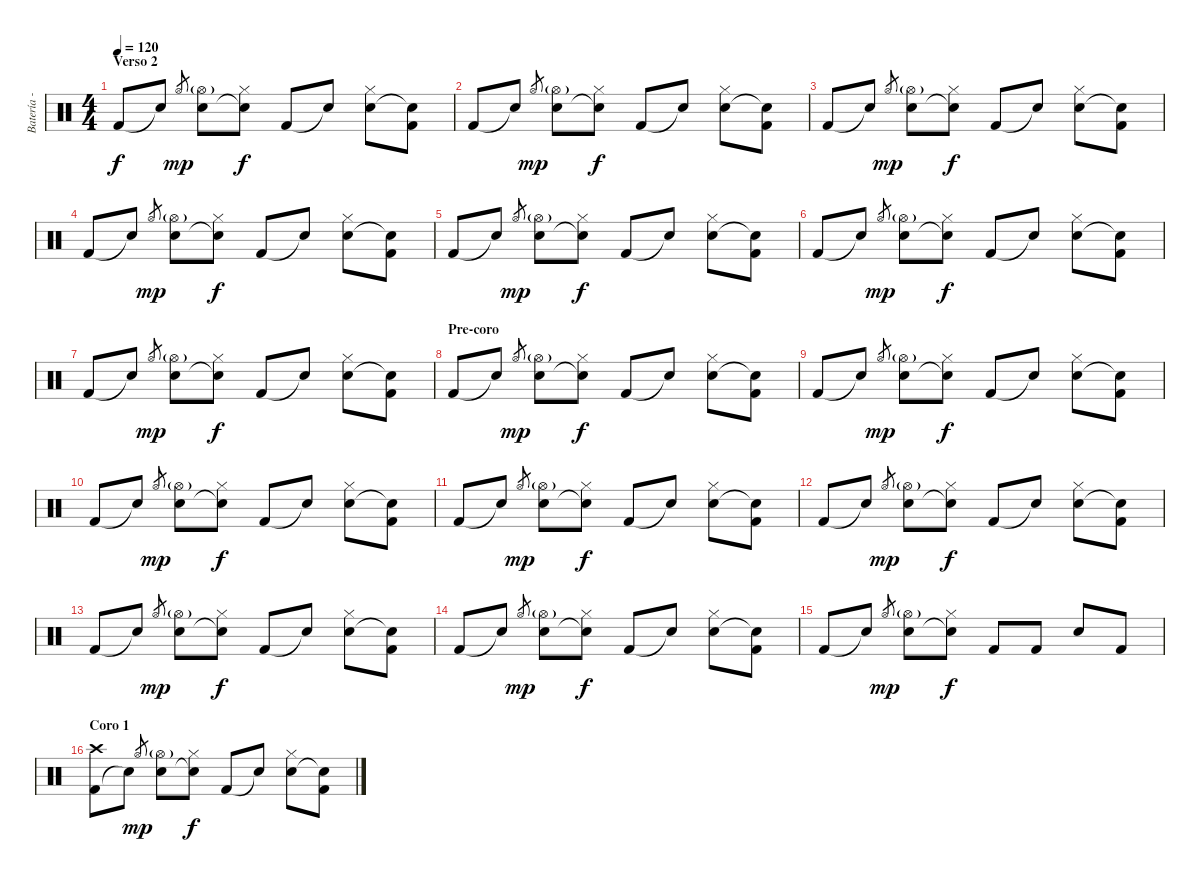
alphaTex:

\track ("Batería - Txus" "Batería - ") {instrument percussion}
\staff {score}
\articulation defaults
\ts (4 4)
\section ("" "Verso 2")
\tempo 120
\clef neutral
\ks c "Kick (hit) 2".8{dy f} "Snare (hit)"{t}.8 "Hi-Hat (open)".8{gr dy mp}
("Snare (hit) 2" "Hi-Hat (open)"{g}).8 ("Snare (hit)"{t} "Hi-Hat (closed)").8{dy f} "Kick (hit) 2".8 "Snare (hit)"{t}.8 ("Snare (hit) 2" "Hi-Hat (closed)").8 ("Snare (hit)"{t} "Kick (hit) 2").8 |
"Kick (hit) 2".8 "Snare (hit)"{t}.8 "Hi-Hat (open)".8{gr dy mp} ("Snare (hit) 2" "Hi-Hat (open)"{g}).8 ("Snare (hit)"{t} "Hi-Hat (closed)").8{dy f} "Kick (hit) 2".8 "Snare (hit)"{t}.8 ("Snare (hit) 2" "Hi-Hat (closed)").8 ("Snare (hit)"{t} "Kick (hit) 2").8 |
"Kick (hit) 2".8 "Snare (hit)"{t}.8 "Hi-Hat (open)".8{gr dy mp} ("Snare (hit) 2" "Hi-Hat (open)"{g}).8 ("Snare (hit)"{t} "Hi-Hat (closed)").8{dy f} "Kick (hit) 2".8 "Snare (hit)"{t}.8 ("Snare (hit) 2" "Hi-Hat (closed)").8 ("Snare (hit)"{t} "Kick (hit) 2").8 |
"Kick (hit) 2".8 "Snare (hit)"{t}.8 "Hi-Hat (open)".8{gr dy mp} ("Snare (hit) 2" "Hi-Hat (open)"{g}).8 ("Snare (hit)"{t} "Hi-Hat (closed)").8{dy f} "Kick (hit) 2".8 "Snare (hit)"{t}.8 ("Snare (hit) 2" "Hi-Hat (closed)").8 ("Snare (hit)"{t} "Kick (hit) 2").8 |
"Kick (hit) 2".8 "Snare (hit)"{t}.8 "Hi-Hat (open)".8{gr dy mp} ("Snare (hit) 2" "Hi-Hat (open)"{g}).8 ("Snare (hit)"{t} "Hi-Hat (closed)").8{dy f} "Kick (hit) 2".8 "Snare (hit)"{t}.8 ("Snare (hit) 2" "Hi-Hat (closed)").8 ("Snare (hit)"{t} "Kick (hit) 2").8 |
"Kick (hit) 2".8 "Snare (hit)"{t}.8 "Hi-Hat (open)".8{gr dy mp} ("Snare (hit) 2" "Hi-Hat (open)"{g}).8 ("Snare (hit)"{t} "Hi-Hat (closed)").8{dy f} "Kick (hit) 2".8 "Snare (hit)"{t}.8 ("Snare (hit) 2" "Hi-Hat (closed)").8 ("Snare (hit)"{t} "Kick (hit) 2").8 |
"Kick (hit) 2".8 "Snare (hit)"{t}.8 "Hi-Hat (open)".8{gr dy mp} ("Snare (hit) 2" "Hi-Hat (open)"{g}).8 ("Snare (hit)"{t} "Hi-Hat (closed)").8{dy f} "Kick (hit) 2".8 "Snare (hit)"{t}.8 ("Snare (hit) 2" "Hi-Hat (closed)").8 ("Snare (hit)"{t} "Kick (hit) 2").8 |
\section ("" "Pre-coro")
"Kick (hit) 2".8 "Snare (hit)"{t}.8 "Hi-Hat (open)".8{gr dy mp} ("Snare (hit) 2" "Hi-Hat (open)"{g}).8 ("Snare (hit)"{t} "Hi-Hat (closed)").8{dy f} "Kick (hit) 2".8 "Snare (hit)"{t}.8 ("Snare (hit) 2" "Hi-Hat (closed)").8 ("Snare (hit)"{t} "Kick (hit) 2").8 |
"Kick (hit) 2".8 "Snare (hit)"{t}.8 "Hi-Hat (open)".8{gr dy mp} ("Snare (hit) 2" "Hi-Hat (open)"{g}).8 ("Snare (hit)"{t} "Hi-Hat (closed)").8{dy f} "Kick (hit) 2".8 "Snare (hit)"{t}.8 ("Snare (hit) 2" "Hi-Hat (closed)").8 ("Snare (hit)"{t} "Kick (hit) 2").8 |
"Kick (hit) 2".8 "Snare (hit)"{t}.8 "Hi-Hat (open)".8{gr dy mp} ("Snare (hit) 2" "Hi-Hat (open)"{g}).8 ("Snare (hit)"{t} "Hi-Hat (closed)").8{dy f} "Kick (hit) 2".8 "Snare (hit)"{t}.8 ("Snare (hit) 2" "Hi-Hat (closed)").8 ("Snare (hit)"{t} "Kick (hit) 2").8 |
"Kick (hit) 2".8 "Snare (hit)"{t}.8 "Hi-Hat (open)".8{gr dy mp} ("Snare (hit) 2" "Hi-Hat (open)"{g}).8 ("Snare (hit)"{t} "Hi-Hat (closed)").8{dy f} "Kick (hit) 2".8 "Snare (hit)"{t}.8 ("Snare (hit) 2" "Hi-Hat (closed)").8 ("Snare (hit)"{t} "Kick (hit) 2").8 |
"Kick (hit) 2".8 "Snare (hit)"{t}.8 "Hi-Hat (open)".8{gr dy mp} ("Snare (hit) 2" "Hi-Hat (open)"{g}).8 ("Snare (hit)"{t} "Hi-Hat (closed)").8{dy f} "Kick (hit) 2".8 "Snare (hit)"{t}.8 ("Snare (hit) 2" "Hi-Hat (closed)").8 ("Snare (hit)"{t} "Kick (hit) 2").8 |
"Kick (hit) 2".8 "Snare (hit)"{t}.8 "Hi-Hat (open)".8{gr dy mp} ("Snare (hit) 2" "Hi-Hat (open)"{g}).8 ("Snare (hit)"{t} "Hi-Hat (closed)").8{dy f} "Kick (hit) 2".8 "Snare (hit)"{t}.8 ("Snare (hit) 2" "Hi-Hat (closed)").8 ("Snare (hit)"{t} "Kick (hit) 2").8 |
"Kick (hit) 2".8 "Snare (hit)"{t}.8 "Hi-Hat (open)".8{gr dy mp} ("Snare (hit) 2" "Hi-Hat (open)"{g}).8 ("Snare (hit)"{t} "Hi-Hat (closed)").8{dy f} "Kick (hit) 2".8 "Snare (hit)"{t}.8 ("Snare (hit) 2" "Hi-Hat (closed)").8 ("Snare (hit)"{t} "Kick (hit) 2").8 |
"Kick (hit) 2".8 "Snare (hit)"{t}.8 "Hi-Hat (open)".8{gr dy mp} ("Snare (hit) 2" "Hi-Hat (open)"{g}).8 ("Snare (hit)"{t} "Hi-Hat (closed)").8{dy f} "Kick (hit) 2".8 "Kick (hit) 2".8 "Snare (hit) 2".8 "Kick (hit) 2".8 |
\section ("" "Coro 1")
("Kick (hit) 2" "Crash high (hit)").8 "Snare (hit)"{t}.8 "Hi-Hat (open)".8{gr dy mp} ("Snare (hit) 2" "Hi-Hat (open)"{g}).8 ("Snare (hit)"{t} "Hi-Hat (closed)").8{dy f} "Kick (hit) 2".8 "Snare (hit)"{t}.8 ("Snare (hit) 2" "Hi-Hat (closed)").8 ("Snare (hit)"{t} "Kick (hit) 2").8
